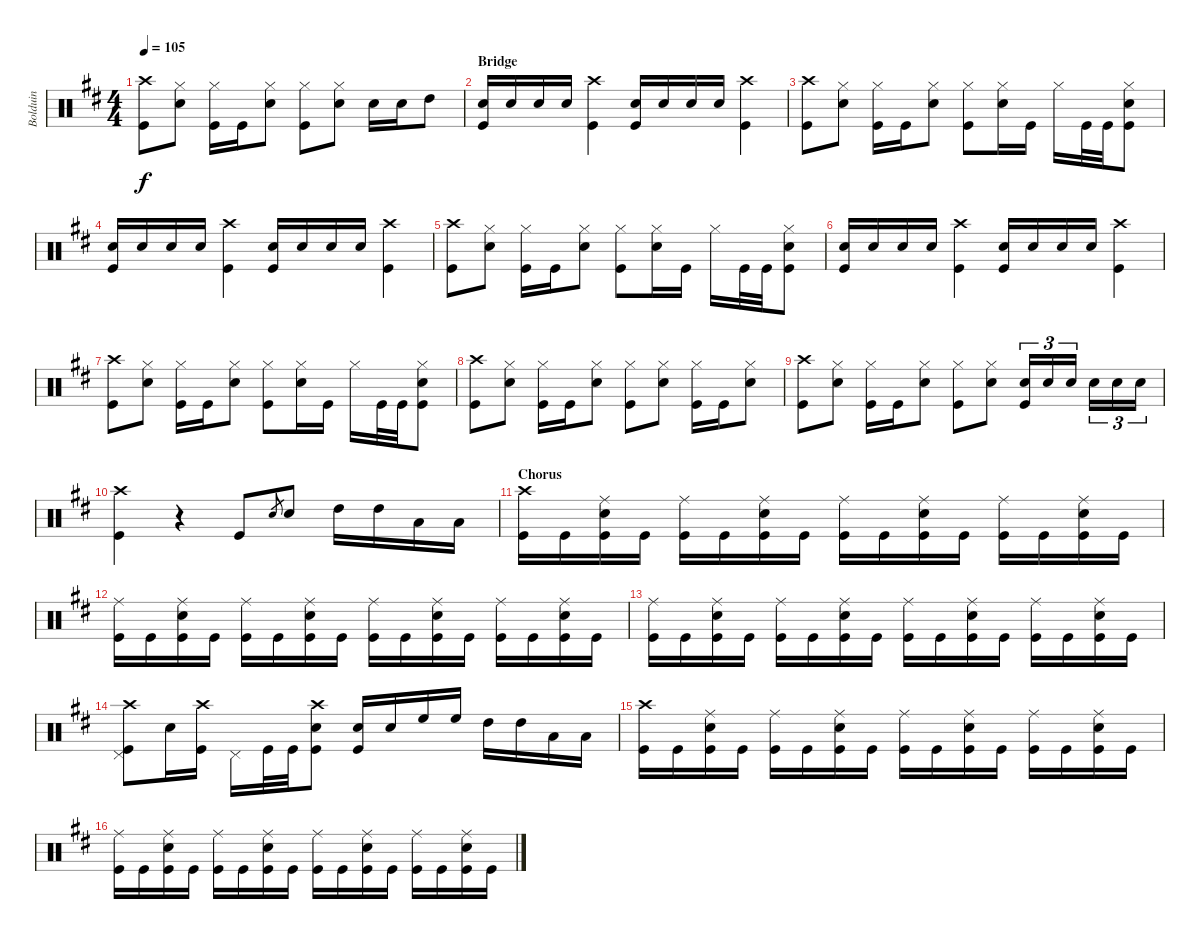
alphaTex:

\track ("Bolduin" "Bolduin") {instrument percussion}
\staff {score}
\articulation defaults
\ts (4 4)
\tempo 105
\clef neutral
\ks bminor
("Crash high (hit)" "Kick (hit)").8{dy f} ("Hi-Hat (closed)" "Snare (hit) 2").8 ("Kick (hit)" "Hi-Hat (closed)").16 "Kick (hit)".16 ("Snare (hit) 2" "Hi-Hat (closed)").8 ("Hi-Hat (closed)" "Kick (hit)").8 ("Hi-Hat (closed)" "Snare (hit) 2").8 "Snare (hit) 2".16 "Snare (hit) 2".16 "High Tom (hit)".8 |
\section ("" "Bridge")
("Kick (hit)" "Snare (hit) 2").16 "Snare (hit) 2".16 "Snare (hit) 2".16 "Snare (hit) 2".16 ("Kick (hit)" "Crash high (hit)").4 ("Kick (hit)" "Snare (hit) 2").16 "Snare (hit) 2".16 "Snare (hit) 2".16 "Snare (hit) 2".16 ("Kick (hit)" "Crash high (hit)").4 |
("Crash high (hit)" "Kick (hit)").8 ("Hi-Hat (closed)" "Snare (hit) 2").8 ("Kick (hit)" "Hi-Hat (closed)").16 "Kick (hit)".16 ("Snare (hit) 2" "Hi-Hat (closed)").8 ("Kick (hit)" "Hi-Hat (closed)").8 ("Hi-Hat (closed)" "Snare (hit) 2").16 "Kick (hit)".16 "Hi-Hat (closed)".16 "Kick (hit)".32 "Kick (hit)".32 ("Snare (hit) 2" "Hi-Hat (closed)" "Kick (hit)").8 |
("Kick (hit)" "Snare (hit) 2").16 "Snare (hit) 2".16 "Snare (hit) 2".16 "Snare (hit) 2".16 ("Kick (hit)" "Crash high (hit)").4 ("Kick (hit)" "Snare (hit) 2").16 "Snare (hit) 2".16 "Snare (hit) 2".16 "Snare (hit) 2".16 ("Kick (hit)" "Crash high (hit)").4 |
("Crash high (hit)" "Kick (hit)").8 ("Hi-Hat (closed)" "Snare (hit) 2").8 ("Kick (hit)" "Hi-Hat (closed)").16 "Kick (hit)".16 ("Snare (hit) 2" "Hi-Hat (closed)").8 ("Kick (hit)" "Hi-Hat (closed)").8 ("Hi-Hat (closed)" "Snare (hit) 2").16 "Kick (hit)".16 "Hi-Hat (closed)".16 "Kick (hit)".32 "Kick (hit)".32 ("Snare (hit) 2" "Hi-Hat (closed)" "Kick (hit)").8 |
("Kick (hit)" "Snare (hit) 2").16 "Snare (hit) 2".16 "Snare (hit) 2".16 "Snare (hit) 2".16 ("Kick (hit)" "Crash high (hit)").4 ("Kick (hit)" "Snare (hit) 2").16 "Snare (hit) 2".16 "Snare (hit) 2".16 "Snare (hit) 2".16 ("Kick (hit)" "Crash high (hit)").4 |
("Crash high (hit)" "Kick (hit)").8 ("Hi-Hat (closed)" "Snare (hit) 2").8 ("Kick (hit)" "Hi-Hat (closed)").16 "Kick (hit)".16 ("Snare (hit) 2" "Hi-Hat (closed)").8 ("Kick (hit)" "Hi-Hat (closed)").8 ("Hi-Hat (closed)" "Snare (hit) 2").16 "Kick (hit)".16 "Hi-Hat (closed)".16 "Kick (hit)".32 "Kick (hit)".32 ("Snare (hit) 2" "Hi-Hat (closed)" "Kick (hit)").8 |
("Crash high (hit)" "Kick (hit)").8 ("Hi-Hat (closed)" "Snare (hit) 2").8 ("Kick (hit)" "Hi-Hat (closed)").16 "Kick (hit)".16 ("Snare (hit) 2" "Hi-Hat (closed)").8 ("Hi-Hat (closed)" "Kick (hit)").8 ("Hi-Hat (closed)" "Snare (hit) 2").8 ("Kick (hit)" "Hi-Hat (closed)").16 "Kick (hit)".16 ("Snare (hit) 2" "Hi-Hat (closed)").8 |
("Crash high (hit)" "Kick (hit)").8 ("Hi-Hat (closed)" "Snare (hit) 2").8 ("Kick (hit)" "Hi-Hat (closed)").16 "Kick (hit)".16 ("Snare (hit) 2" "Hi-Hat (closed)").8 ("Kick (hit)" "Hi-Hat (closed)").8 ("Snare (hit) 2" "Hi-Hat (closed)").8 ("Snare (hit) 2" "Kick (hit)").16{tu (3 2)} "Snare (hit) 2".16{tu (3 2)} "Snare (hit) 2".16{tu (3 2) beam splitsecondary} "Snare (hit) 2".16{tu (3 2)} "Snare (hit) 2".16{tu (3 2)} "Snare (hit) 2".16{tu (3 2)} |
("Kick (hit)" "Crash high (hit)").4 r.4 "Kick (hit)".8 "Snare (hit) 2".8{gr} "Snare (hit) 2".8 "High Tom (hit)".16 "High Tom (hit)".16 "Low Tom (hit)".16 "Low Tom (hit)".16 |
\section ("" "Chorus")
("Kick (hit)" "Crash high (hit)").16 "Kick (hit)".16 ("Kick (hit)" "Ride (middle)" "Snare (hit) 2").16 "Kick (hit)".16 ("Kick (hit)" "Ride (middle)").16 "Kick (hit)".16 ("Kick (hit)" "Ride (middle)" "Snare (hit) 2").16 "Kick (hit)".16 ("Kick (hit)" "Ride (middle)").16 "Kick (hit)".16 ("Kick (hit)" "Ride (middle)" "Snare (hit) 2").16 "Kick (hit)".16 ("Kick (hit)" "Ride (middle)").16 "Kick (hit)".16 ("Kick (hit)" "Ride (middle)" "Snare (hit) 2").16 "Kick (hit)".16 |
("Kick (hit)" "Ride (middle)").16 "Kick (hit)".16 ("Kick (hit)" "Ride (middle)" "Snare (hit) 2").16 "Kick (hit)".16 ("Kick (hit)" "Ride (middle)").16 "Kick (hit)".16 ("Kick (hit)" "Ride (middle)" "Snare (hit) 2").16 "Kick (hit)".16 ("Kick (hit)" "Ride (middle)").16 "Kick (hit)".16 ("Kick (hit)" "Ride (middle)" "Snare (hit) 2").16 "Kick (hit)".16 ("Kick (hit)" "Ride (middle)").16 "Kick (hit)".16 ("Kick (hit)" "Ride (middle)" "Snare (hit) 2").16 "Kick (hit)".16 |
("Kick (hit)" "Ride (middle)").16 "Kick (hit)".16 ("Kick (hit)" "Ride (middle)" "Snare (hit) 2").16 "Kick (hit)".16 ("Kick (hit)" "Ride (middle)").16 "Kick (hit)".16 ("Kick (hit)" "Ride (middle)" "Snare (hit) 2").16 "Kick (hit)".16 ("Kick (hit)" "Ride (middle)").16 "Kick (hit)".16 ("Kick (hit)" "Ride (middle)" "Snare (hit) 2").16 "Kick (hit)".16 ("Kick (hit)" "Ride (middle)").16 "Kick (hit)".16 ("Kick (hit)" "Ride (middle)" "Snare (hit) 2").16 "Kick (hit)".16 |
("Crash high (hit)" "Pedal Hi-Hat (hit)" "Kick (hit)").8 "Snare (hit) 2".16 ("Crash high (hit)" "Kick (hit)").16 "Pedal Hi-Hat (hit)".16 "Kick (hit)".32 "Kick (hit)".32 ("Kick (hit)" "Crash high (hit)" "Snare (hit) 2").8 ("Kick (hit)" "Snare (hit) 2").16 "Snare (hit) 2".16 "High Floor Tom (hit)".16 "High Floor Tom (hit)".16 "High Tom (hit)".16 "High Tom (hit)".16 "Low Tom (hit)".16 "Low Tom (hit)".16 |
("Kick (hit)" "Crash high (hit)").16 "Kick (hit)".16 ("Kick (hit)" "Ride (middle)" "Snare (hit) 2").16 "Kick (hit)".16 ("Kick (hit)" "Ride (middle)").16 "Kick (hit)".16 ("Kick (hit)" "Ride (middle)" "Snare (hit) 2").16 "Kick (hit)".16 ("Kick (hit)" "Ride (middle)").16 "Kick (hit)".16 ("Kick (hit)" "Ride (middle)" "Snare (hit) 2").16 "Kick (hit)".16 ("Kick (hit)" "Ride (middle)").16 "Kick (hit)".16 ("Kick (hit)" "Ride (middle)" "Snare (hit) 2").16 "Kick (hit)".16 |
("Kick (hit)" "Ride (middle)").16 "Kick (hit)".16 ("Kick (hit)" "Ride (middle)" "Snare (hit) 2").16 "Kick (hit)".16 ("Kick (hit)" "Ride (middle)").16 "Kick (hit)".16 ("Kick (hit)" "Ride (middle)" "Snare (hit) 2").16 "Kick (hit)".16 ("Kick (hit)" "Ride (middle)").16 "Kick (hit)".16 ("Kick (hit)" "Ride (middle)" "Snare (hit) 2").16 "Kick (hit)".16 ("Kick (hit)" "Ride (middle)").16 "Kick (hit)".16 ("Kick (hit)" "Ride (middle)" "Snare (hit) 2").16 "Kick (hit)".16
